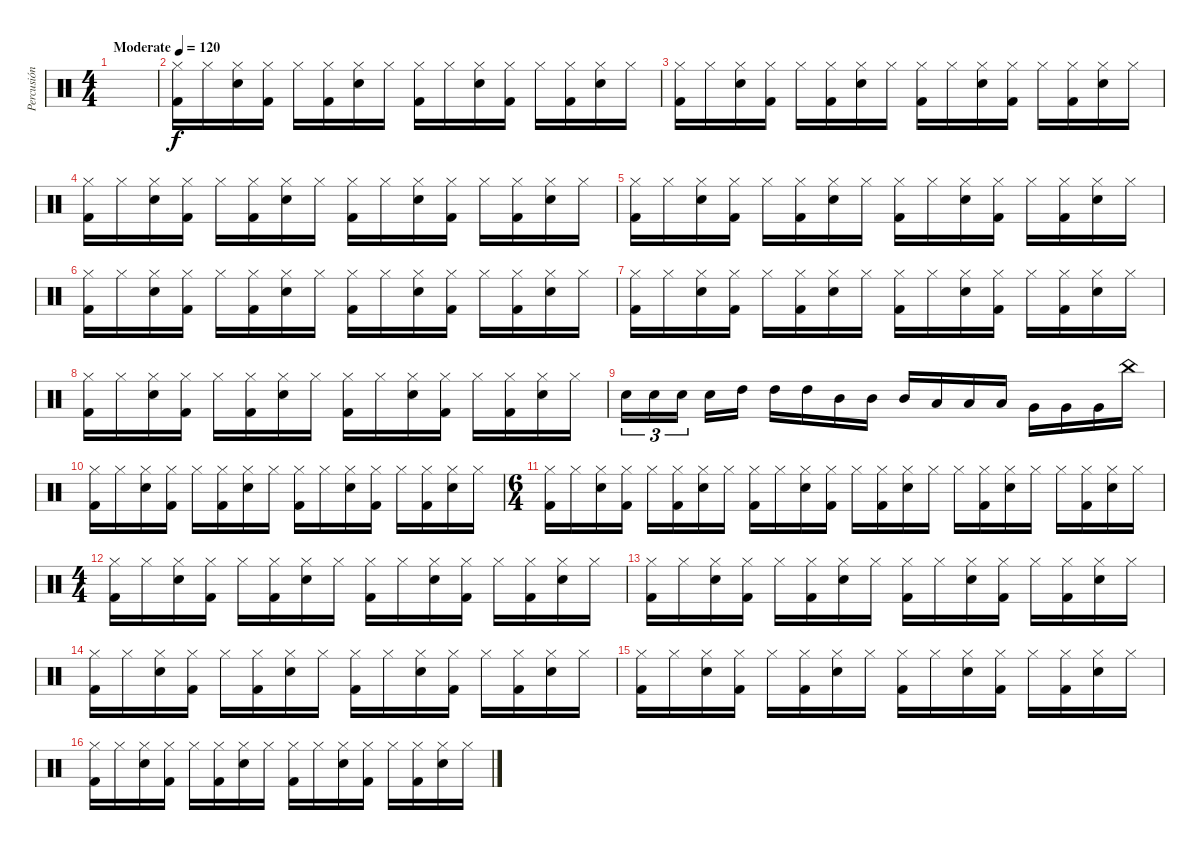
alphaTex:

\track ("Percusión" "Percusión") {instrument percussion}
\staff {score}
\articulation defaults
\ts (4 4)
\tempo (120 "Moderate")
\clef neutral
\ks c
|
("Kick (hit) 2" "Hi-Hat (closed)").16 "Hi-Hat (closed)".16 ("Snare (hit) 2" "Hi-Hat (closed)").16 ("Kick (hit) 2" "Hi-Hat (closed)").16 "Hi-Hat (closed)".16 ("Kick (hit) 2" "Hi-Hat (closed)").16 ("Snare (hit) 2" "Hi-Hat (closed)").16 "Hi-Hat (closed)".16 ("Kick (hit) 2" "Hi-Hat (closed)").16 "Hi-Hat (closed)".16 ("Snare (hit) 2" "Hi-Hat (closed)").16 ("Kick (hit) 2" "Hi-Hat (closed)").16 "Hi-Hat (closed)".16 ("Kick (hit) 2" "Hi-Hat (closed)").16 ("Snare (hit) 2" "Hi-Hat (closed)").16 "Hi-Hat (closed)".16 |
("Kick (hit) 2" "Hi-Hat (closed)").16 "Hi-Hat (closed)".16 ("Snare (hit) 2" "Hi-Hat (closed)").16 ("Kick (hit) 2" "Hi-Hat (closed)").16 "Hi-Hat (closed)".16 ("Kick (hit) 2" "Hi-Hat (closed)").16 ("Snare (hit) 2" "Hi-Hat (closed)").16 "Hi-Hat (closed)".16 ("Kick (hit) 2" "Hi-Hat (closed)").16 "Hi-Hat (closed)".16 ("Snare (hit) 2" "Hi-Hat (closed)").16 ("Kick (hit) 2" "Hi-Hat (closed)").16 "Hi-Hat (closed)".16 ("Kick (hit) 2" "Hi-Hat (closed)").16 ("Snare (hit) 2" "Hi-Hat (closed)").16 "Hi-Hat (closed)".16 |
("Kick (hit) 2" "Hi-Hat (closed)").16 "Hi-Hat (closed)".16 ("Snare (hit) 2" "Hi-Hat (closed)").16 ("Kick (hit) 2" "Hi-Hat (closed)").16 "Hi-Hat (closed)".16 ("Kick (hit) 2" "Hi-Hat (closed)").16 ("Snare (hit) 2" "Hi-Hat (closed)").16 "Hi-Hat (closed)".16 ("Kick (hit) 2" "Hi-Hat (closed)").16 "Hi-Hat (closed)".16 ("Snare (hit) 2" "Hi-Hat (closed)").16 ("Kick (hit) 2" "Hi-Hat (closed)").16 "Hi-Hat (closed)".16 ("Kick (hit) 2" "Hi-Hat (closed)").16 ("Snare (hit) 2" "Hi-Hat (closed)").16 "Hi-Hat (closed)".16 |
("Kick (hit) 2" "Hi-Hat (closed)").16 "Hi-Hat (closed)".16 ("Snare (hit) 2" "Hi-Hat (closed)").16 ("Kick (hit) 2" "Hi-Hat (closed)").16 "Hi-Hat (closed)".16 ("Kick (hit) 2" "Hi-Hat (closed)").16 ("Snare (hit) 2" "Hi-Hat (closed)").16 "Hi-Hat (closed)".16 ("Kick (hit) 2" "Hi-Hat (closed)").16 "Hi-Hat (closed)".16 ("Snare (hit) 2" "Hi-Hat (closed)").16 ("Kick (hit) 2" "Hi-Hat (closed)").16 "Hi-Hat (closed)".16 ("Kick (hit) 2" "Hi-Hat (closed)").16 ("Snare (hit) 2" "Hi-Hat (closed)").16 "Hi-Hat (closed)".16 |
("Kick (hit) 2" "Hi-Hat (closed)").16 "Hi-Hat (closed)".16 ("Snare (hit) 2" "Hi-Hat (closed)").16 ("Kick (hit) 2" "Hi-Hat (closed)").16 "Hi-Hat (closed)".16 ("Kick (hit) 2" "Hi-Hat (closed)").16 ("Snare (hit) 2" "Hi-Hat (closed)").16 "Hi-Hat (closed)".16 ("Kick (hit) 2" "Hi-Hat (closed)").16 "Hi-Hat (closed)".16 ("Snare (hit) 2" "Hi-Hat (closed)").16 ("Kick (hit) 2" "Hi-Hat (closed)").16 "Hi-Hat (closed)".16 ("Kick (hit) 2" "Hi-Hat (closed)").16 ("Snare (hit) 2" "Hi-Hat (closed)").16 "Hi-Hat (closed)".16 |
("Kick (hit) 2" "Hi-Hat (closed)").16 "Hi-Hat (closed)".16 ("Snare (hit) 2" "Hi-Hat (closed)").16 ("Kick (hit) 2" "Hi-Hat (closed)").16 "Hi-Hat (closed)".16 ("Kick (hit) 2" "Hi-Hat (closed)").16 ("Snare (hit) 2" "Hi-Hat (closed)").16 "Hi-Hat (closed)".16 ("Kick (hit) 2" "Hi-Hat (closed)").16 "Hi-Hat (closed)".16 ("Snare (hit) 2" "Hi-Hat (closed)").16 ("Kick (hit) 2" "Hi-Hat (closed)").16 "Hi-Hat (closed)".16 ("Kick (hit) 2" "Hi-Hat (closed)").16 ("Snare (hit) 2" "Hi-Hat (closed)").16 "Hi-Hat (closed)".16 |
("Kick (hit) 2" "Hi-Hat (closed)").16 "Hi-Hat (closed)".16 ("Snare (hit) 2" "Hi-Hat (closed)").16 ("Kick (hit) 2" "Hi-Hat (closed)").16 "Hi-Hat (closed)".16 ("Kick (hit) 2" "Hi-Hat (closed)").16 ("Snare (hit) 2" "Hi-Hat (closed)").16 "Hi-Hat (closed)".16 ("Kick (hit) 2" "Hi-Hat (closed)").16 "Hi-Hat (closed)".16 ("Snare (hit) 2" "Hi-Hat (closed)").16 ("Kick (hit) 2" "Hi-Hat (closed)").16 "Hi-Hat (closed)".16 ("Kick (hit) 2" "Hi-Hat (closed)").16 ("Snare (hit) 2" "Hi-Hat (closed)").16 "Hi-Hat (closed)".16 |
"Electric Snare (hit)".16{tu (3 2)} "Electric Snare (hit)".16{tu (3 2)} "Electric Snare (hit)".16{tu (3 2) beam splitsecondary} "Electric Snare (hit)".16 "High Tom (hit)".16 "High Tom (hit)".16 "High Tom (hit)".16 "Mid Tom (hit)".16 "Mid Tom (hit)".16 "Mid Tom (hit)".16 "Low Tom (hit)".16 "Low Tom (hit)".16 "Low Tom (hit)".16 "Very Low Tom (hit)".16 "Very Low Tom (hit)".16 "Very Low Tom (hit)".16 "China (hit)".16 |
("Kick (hit) 2" "Hi-Hat (closed)").16 "Hi-Hat (closed)".16 ("Snare (hit) 2" "Hi-Hat (closed)").16 ("Kick (hit) 2" "Hi-Hat (closed)").16 "Hi-Hat (closed)".16 ("Kick (hit) 2" "Hi-Hat (closed)").16 ("Snare (hit) 2" "Hi-Hat (closed)").16 "Hi-Hat (closed)".16 ("Kick (hit) 2" "Hi-Hat (closed)").16 "Hi-Hat (closed)".16 ("Snare (hit) 2" "Hi-Hat (closed)").16 ("Kick (hit) 2" "Hi-Hat (closed)").16 "Hi-Hat (closed)".16 ("Kick (hit) 2" "Hi-Hat (closed)").16 ("Snare (hit) 2" "Hi-Hat (closed)").16 "Hi-Hat (closed)".16 |
\ts (6 4)
("Kick (hit) 2" "Hi-Hat (closed)").16 "Hi-Hat (closed)".16 ("Snare (hit) 2" "Hi-Hat (closed)").16 ("Kick (hit) 2" "Hi-Hat (closed)").16 "Hi-Hat (closed)".16 ("Kick (hit) 2" "Hi-Hat (closed)").16 ("Snare (hit) 2" "Hi-Hat (closed)").16 "Hi-Hat (closed)".16 ("Kick (hit) 2" "Hi-Hat (closed)").16 "Hi-Hat (closed)".16 ("Snare (hit) 2" "Hi-Hat (closed)").16 ("Kick (hit) 2" "Hi-Hat (closed)").16 "Hi-Hat (closed)".16 ("Kick (hit) 2" "Hi-Hat (closed)").16 ("Snare (hit) 2" "Hi-Hat (closed)").16 "Hi-Hat (closed)".16 "Hi-Hat (closed)".16 ("Kick (hit) 2" "Hi-Hat (closed)").16 ("Snare (hit) 2" "Hi-Hat (closed)").16 "Hi-Hat (closed)".16 "Hi-Hat (closed)".16 ("Kick (hit) 2" "Hi-Hat (closed)").16 ("Snare (hit) 2" "Hi-Hat (closed)").16 "Hi-Hat (closed)".16 |
\ts (4 4)
("Kick (hit) 2" "Hi-Hat (closed)").16 "Hi-Hat (closed)".16 ("Snare (hit) 2" "Hi-Hat (closed)").16 ("Kick (hit) 2" "Hi-Hat (closed)").16 "Hi-Hat (closed)".16 ("Kick (hit) 2" "Hi-Hat (closed)").16 ("Snare (hit) 2" "Hi-Hat (closed)").16 "Hi-Hat (closed)".16 ("Kick (hit) 2" "Hi-Hat (closed)").16 "Hi-Hat (closed)".16 ("Snare (hit) 2" "Hi-Hat (closed)").16 ("Kick (hit) 2" "Hi-Hat (closed)").16 "Hi-Hat (closed)".16 ("Kick (hit) 2" "Hi-Hat (closed)").16 ("Snare (hit) 2" "Hi-Hat (closed)").16 "Hi-Hat (closed)".16 |
("Kick (hit) 2" "Hi-Hat (closed)").16 "Hi-Hat (closed)".16 ("Snare (hit) 2" "Hi-Hat (closed)").16 ("Kick (hit) 2" "Hi-Hat (closed)").16 "Hi-Hat (closed)".16 ("Kick (hit) 2" "Hi-Hat (closed)").16 ("Snare (hit) 2" "Hi-Hat (closed)").16 "Hi-Hat (closed)".16 ("Kick (hit) 2" "Hi-Hat (closed)").16 "Hi-Hat (closed)".16 ("Snare (hit) 2" "Hi-Hat (closed)").16 ("Kick (hit) 2" "Hi-Hat (closed)").16 "Hi-Hat (closed)".16 ("Kick (hit) 2" "Hi-Hat (closed)").16 ("Snare (hit) 2" "Hi-Hat (closed)").16 "Hi-Hat (closed)".16 |
("Kick (hit) 2" "Hi-Hat (closed)").16 "Hi-Hat (closed)".16 ("Snare (hit) 2" "Hi-Hat (closed)").16 ("Kick (hit) 2" "Hi-Hat (closed)").16 "Hi-Hat (closed)".16 ("Kick (hit) 2" "Hi-Hat (closed)").16 ("Snare (hit) 2" "Hi-Hat (closed)").16 "Hi-Hat (closed)".16 ("Kick (hit) 2" "Hi-Hat (closed)").16 "Hi-Hat (closed)".16 ("Snare (hit) 2" "Hi-Hat (closed)").16 ("Kick (hit) 2" "Hi-Hat (closed)").16 "Hi-Hat (closed)".16 ("Kick (hit) 2" "Hi-Hat (closed)").16 ("Snare (hit) 2" "Hi-Hat (closed)").16 "Hi-Hat (closed)".16 |
("Kick (hit) 2" "Hi-Hat (closed)").16 "Hi-Hat (closed)".16 ("Snare (hit) 2" "Hi-Hat (closed)").16 ("Kick (hit) 2" "Hi-Hat (closed)").16 "Hi-Hat (closed)".16 ("Kick (hit) 2" "Hi-Hat (closed)").16 ("Snare (hit) 2" "Hi-Hat (closed)").16 "Hi-Hat (closed)".16 ("Kick (hit) 2" "Hi-Hat (closed)").16 "Hi-Hat (closed)".16 ("Snare (hit) 2" "Hi-Hat (closed)").16 ("Kick (hit) 2" "Hi-Hat (closed)").16 "Hi-Hat (closed)".16 ("Kick (hit) 2" "Hi-Hat (closed)").16 ("Snare (hit) 2" "Hi-Hat (closed)").16 "Hi-Hat (closed)".16 |
("Kick (hit) 2" "Hi-Hat (closed)").16 "Hi-Hat (closed)".16 ("Snare (hit) 2" "Hi-Hat (closed)").16 ("Kick (hit) 2" "Hi-Hat (closed)").16 "Hi-Hat (closed)".16 ("Kick (hit) 2" "Hi-Hat (closed)").16 ("Snare (hit) 2" "Hi-Hat (closed)").16 "Hi-Hat (closed)".16 ("Kick (hit) 2" "Hi-Hat (closed)").16 "Hi-Hat (closed)".16 ("Snare (hit) 2" "Hi-Hat (closed)").16 ("Kick (hit) 2" "Hi-Hat (closed)").16 "Hi-Hat (closed)".16 ("Kick (hit) 2" "Hi-Hat (closed)").16 ("Snare (hit) 2" "Hi-Hat (closed)").16 "Hi-Hat (closed)".16
